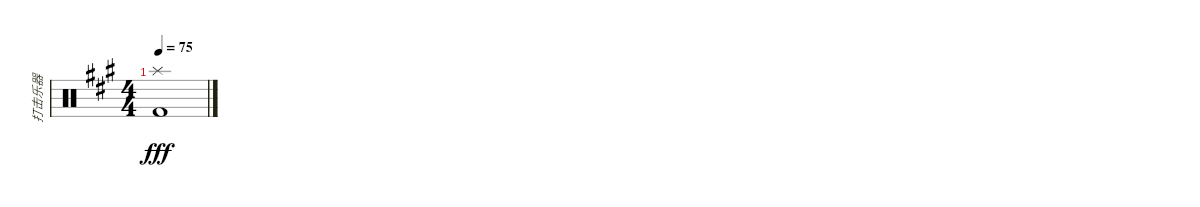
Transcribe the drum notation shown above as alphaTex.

\track ("打击乐器" "打击乐器") {instrument percussion}
\staff {score}
\articulation defaults
\ts (4 4)
\tempo 75
\clef neutral
\ks a
("Kick (hit) 2" "Splash (hit)").1{dy fff}
